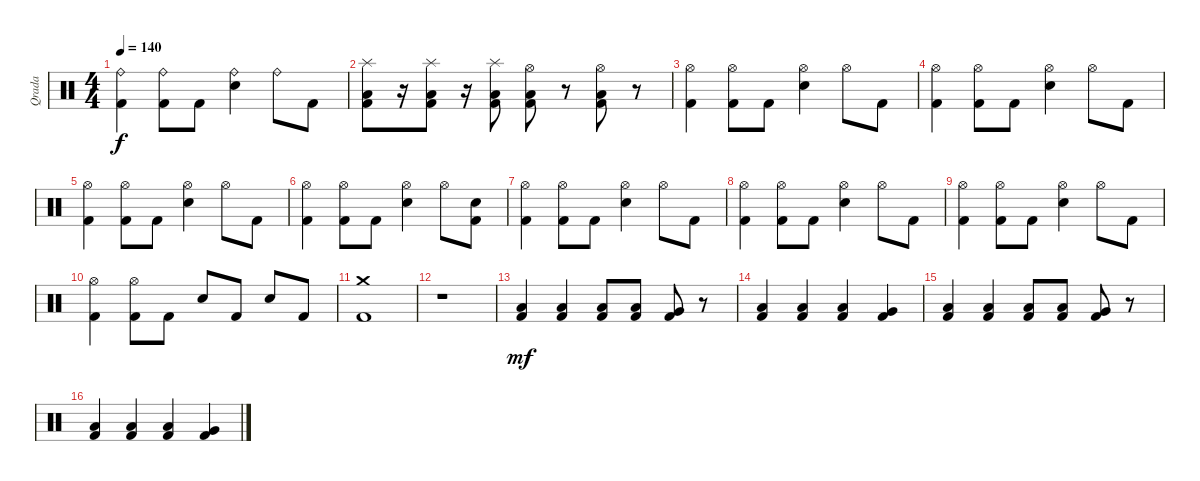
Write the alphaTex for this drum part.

\track ("Qrada" "Qrada") {instrument percussion}
\staff {score}
\articulation defaults
\ts (4 4)
\tempo 140
\clef neutral
\ks c
("Kick (hit) 2" "Ride (bell)").4{dy f} ("Kick (hit) 2" "Ride (bell)").8 "Kick (hit) 2".8 ("Snare (hit) 2" "Ride (bell)").4 "Ride (bell)".8 "Kick (hit) 2".8 |
("Kick (hit) 2" "Low Floor Tom (hit)" "Splash (hit)").8 r.16 ("Kick (hit) 2" "Low Floor Tom (hit)" "Splash (hit)").8 r.16 ("Kick (hit) 2" "Low Floor Tom (hit)" "Splash (hit)").8 ("Kick (hit) 2" "Low Floor Tom (hit)" "Hi-Hat (open)").8 r.8 ("Kick (hit) 2" "Low Floor Tom (hit)" "Hi-Hat (open)").8 r.8 |
("Kick (hit) 2" "Hi-Hat (open)").4 ("Kick (hit) 2" "Hi-Hat (open)").8 "Kick (hit) 2".8 ("Snare (hit) 2" "Hi-Hat (open)").4 "Hi-Hat (open)".8 "Kick (hit) 2".8 |
("Kick (hit) 2" "Hi-Hat (open)").4 ("Kick (hit) 2" "Hi-Hat (open)").8 "Kick (hit) 2".8 ("Snare (hit) 2" "Hi-Hat (open)").4 "Hi-Hat (open)".8 "Kick (hit) 2".8 |
("Kick (hit) 2" "Hi-Hat (open)").4 ("Kick (hit) 2" "Hi-Hat (open)").8 "Kick (hit) 2".8 ("Snare (hit) 2" "Hi-Hat (open)").4 "Hi-Hat (open)".8 "Kick (hit) 2".8 |
("Kick (hit) 2" "Hi-Hat (open)").4 ("Kick (hit) 2" "Hi-Hat (open)").8 "Kick (hit) 2".8 ("Snare (hit) 2" "Hi-Hat (open)").4 "Hi-Hat (open)".8 ("Kick (hit) 2" "Snare (hit) 2").8 |
("Kick (hit) 2" "Hi-Hat (open)").4 ("Kick (hit) 2" "Hi-Hat (open)").8 "Kick (hit) 2".8 ("Snare (hit) 2" "Hi-Hat (open)").4 "Hi-Hat (open)".8 "Kick (hit) 2".8 |
("Kick (hit) 2" "Hi-Hat (open)").4 ("Kick (hit) 2" "Hi-Hat (open)").8 "Kick (hit) 2".8 ("Snare (hit) 2" "Hi-Hat (open)").4 "Hi-Hat (open)".8 "Kick (hit) 2".8 |
("Kick (hit) 2" "Hi-Hat (open)").4 ("Kick (hit) 2" "Hi-Hat (open)").8 "Kick (hit) 2".8 ("Snare (hit) 2" "Hi-Hat (open)").4 "Hi-Hat (open)".8 "Kick (hit) 2".8 |
("Kick (hit) 2" "Hi-Hat (open)").4 ("Kick (hit) 2" "Hi-Hat (open)").8 "Kick (hit) 2".8 "Snare (hit) 2".8 "Kick (hit) 2".8 "Snare (hit) 2".8 "Kick (hit) 2".8 |
("Kick (hit) 2" "Crash medium (hit)").1 |
r.1 |
("Kick (hit) 2" "Low Floor Tom (hit)").4{dy mf} ("Kick (hit) 2" "Low Floor Tom (hit)").4 ("Kick (hit) 2" "Low Floor Tom (hit)").8 ("Kick (hit) 2" "Low Floor Tom (hit)").8 ("Kick (hit) 2" "Very Low Tom (hit)").8 r.8 |
("Kick (hit) 2" "Low Floor Tom (hit)").4 ("Kick (hit) 2" "Low Floor Tom (hit)").4 ("Kick (hit) 2" "Low Floor Tom (hit)").4 ("Kick (hit) 2" "Very Low Tom (hit)").4 |
("Kick (hit) 2" "Low Floor Tom (hit)").4 ("Kick (hit) 2" "Low Floor Tom (hit)").4 ("Kick (hit) 2" "Low Floor Tom (hit)").8 ("Kick (hit) 2" "Low Floor Tom (hit)").8 ("Kick (hit) 2" "Very Low Tom (hit)").8 r.8 |
("Kick (hit) 2" "Low Floor Tom (hit)").4 ("Kick (hit) 2" "Low Floor Tom (hit)").4 ("Kick (hit) 2" "Low Floor Tom (hit)").4 ("Kick (hit) 2" "Very Low Tom (hit)").4
